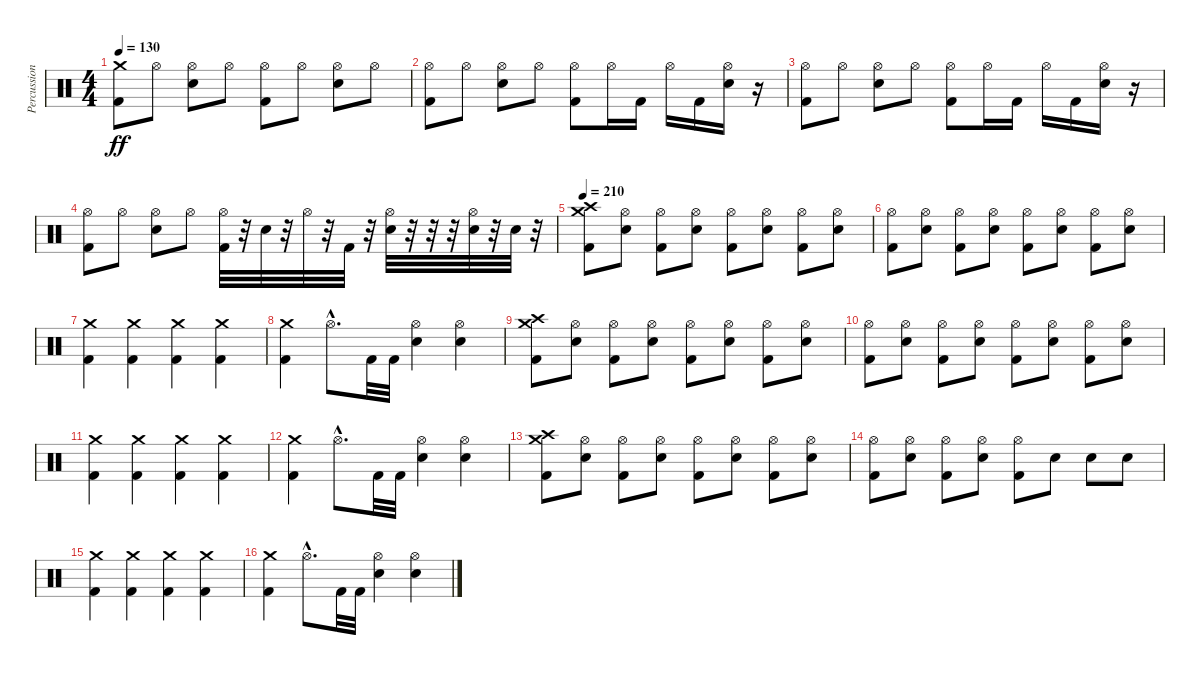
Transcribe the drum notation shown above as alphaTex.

\track ("Percussion" "Percussion") {instrument percussion}
\staff {score}
\articulation defaults
\ts (4 4)
\tempo 130
\clef neutral
\ks c
("Kick (hit) 2" "Crash medium (hit)").8{dy ff} "Hi-Hat (open)".8 ("Electric Snare (hit)" "Hi-Hat (open)").8 "Hi-Hat (open)".8 ("Kick (hit) 2" "Hi-Hat (open)").8 "Hi-Hat (open)".8 ("Electric Snare (hit)" "Hi-Hat (open)").8 "Hi-Hat (open)".8 |
("Kick (hit) 2" "Hi-Hat (open)").8 "Hi-Hat (open)".8 ("Electric Snare (hit)" "Hi-Hat (open)").8 "Hi-Hat (open)".8 ("Kick (hit) 2" "Hi-Hat (open)").8 "Hi-Hat (open)".16 "Kick (hit) 2".16 "Hi-Hat (open)".16 "Kick (hit) 2".16 ("Electric Snare (hit)" "Hi-Hat (open)").16 r.16 |
("Kick (hit) 2" "Hi-Hat (open)").8 "Hi-Hat (open)".8 ("Electric Snare (hit)" "Hi-Hat (open)").8 "Hi-Hat (open)".8 ("Kick (hit) 2" "Hi-Hat (open)").8 "Hi-Hat (open)".16 "Kick (hit) 2".16 "Hi-Hat (open)".16 "Kick (hit) 2".16 ("Electric Snare (hit)" "Hi-Hat (open)").16 r.16 |
("Kick (hit) 2" "Hi-Hat (open)").8 "Hi-Hat (open)".8 ("Electric Snare (hit)" "Hi-Hat (open)").8 "Hi-Hat (open)".8 ("Kick (hit) 2" "Hi-Hat (open)").32 r.32 "Electric Snare (hit)".32 r.32 "Hi-Hat (open)".32 r.32 "Kick (hit) 2".32 r.32 ("Electric Snare (hit)" "Hi-Hat (open)").32 r.32 r.32 r.32 ("Electric Snare (hit)" "Hi-Hat (open)").32 r.32 "Electric Snare (hit)".32 r.32 |
\tempo 210
("Kick (hit) 2" "Crash medium (hit)" "Crash high (hit)").8 ("Electric Snare (hit)" "Hi-Hat (open)").8 ("Kick (hit) 2" "Hi-Hat (open)").8 ("Electric Snare (hit)" "Hi-Hat (open)").8 ("Kick (hit) 2" "Hi-Hat (open)").8 ("Electric Snare (hit)" "Hi-Hat (open)").8 ("Kick (hit) 2" "Hi-Hat (open)").8 ("Electric Snare (hit)" "Hi-Hat (open)").8 |
("Kick (hit) 2" "Hi-Hat (open)").8 ("Electric Snare (hit)" "Hi-Hat (open)").8 ("Kick (hit) 2" "Hi-Hat (open)").8 ("Electric Snare (hit)" "Hi-Hat (open)").8 ("Kick (hit) 2" "Hi-Hat (open)").8 ("Electric Snare (hit)" "Hi-Hat (open)").8 ("Kick (hit) 2" "Hi-Hat (open)").8 ("Electric Snare (hit)" "Hi-Hat (open)").8 |
("Kick (hit) 2" "Crash medium (hit)").4 ("Kick (hit) 2" "Crash medium (hit)").4 ("Kick (hit) 2" "Crash medium (hit)").4 ("Kick (hit) 2" "Crash medium (hit)").4 |
("Kick (hit) 2" "Crash medium (hit)").4 "Hi-Hat (open)"{hac}.8{d} "Kick (hit) 2".32 "Kick (hit) 2".32 ("Electric Snare (hit)" "Hi-Hat (open)").4 ("Electric Snare (hit)" "Hi-Hat (open)").4 |
("Kick (hit) 2" "Crash medium (hit)" "Crash high (hit)").8 ("Electric Snare (hit)" "Hi-Hat (open)").8 ("Kick (hit) 2" "Hi-Hat (open)").8 ("Electric Snare (hit)" "Hi-Hat (open)").8 ("Kick (hit) 2" "Hi-Hat (open)").8 ("Electric Snare (hit)" "Hi-Hat (open)").8 ("Kick (hit) 2" "Hi-Hat (open)").8 ("Electric Snare (hit)" "Hi-Hat (open)").8 |
("Kick (hit) 2" "Hi-Hat (open)").8 ("Electric Snare (hit)" "Hi-Hat (open)").8 ("Kick (hit) 2" "Hi-Hat (open)").8 ("Electric Snare (hit)" "Hi-Hat (open)").8 ("Kick (hit) 2" "Hi-Hat (open)").8 ("Electric Snare (hit)" "Hi-Hat (open)").8 ("Kick (hit) 2" "Hi-Hat (open)").8 ("Electric Snare (hit)" "Hi-Hat (open)").8 |
("Kick (hit) 2" "Crash medium (hit)").4 ("Kick (hit) 2" "Crash medium (hit)").4 ("Kick (hit) 2" "Crash medium (hit)").4 ("Kick (hit) 2" "Crash medium (hit)").4 |
("Kick (hit) 2" "Crash medium (hit)").4 "Hi-Hat (open)"{hac}.8{d} "Kick (hit) 2".32 "Kick (hit) 2".32 ("Electric Snare (hit)" "Hi-Hat (open)").4 ("Electric Snare (hit)" "Hi-Hat (open)").4 |
("Kick (hit) 2" "Crash medium (hit)" "Crash high (hit)").8 ("Electric Snare (hit)" "Hi-Hat (open)").8 ("Kick (hit) 2" "Hi-Hat (open)").8 ("Electric Snare (hit)" "Hi-Hat (open)").8 ("Kick (hit) 2" "Hi-Hat (open)").8 ("Electric Snare (hit)" "Hi-Hat (open)").8 ("Kick (hit) 2" "Hi-Hat (open)").8 ("Electric Snare (hit)" "Hi-Hat (open)").8 |
("Kick (hit) 2" "Hi-Hat (open)").8 ("Electric Snare (hit)" "Hi-Hat (open)").8 ("Kick (hit) 2" "Hi-Hat (open)").8 ("Electric Snare (hit)" "Hi-Hat (open)").8 ("Kick (hit) 2" "Hi-Hat (open)").8 "Electric Snare (hit)".8 "Electric Snare (hit)".8 "Electric Snare (hit)".8 |
("Kick (hit) 2" "Crash medium (hit)").4 ("Kick (hit) 2" "Crash medium (hit)").4 ("Kick (hit) 2" "Crash medium (hit)").4 ("Kick (hit) 2" "Crash medium (hit)").4 |
("Kick (hit) 2" "Crash medium (hit)").4 "Hi-Hat (open)"{hac}.8{d} "Kick (hit) 2".32 "Kick (hit) 2".32 ("Electric Snare (hit)" "Hi-Hat (open)").4 ("Electric Snare (hit)" "Hi-Hat (open)").4
